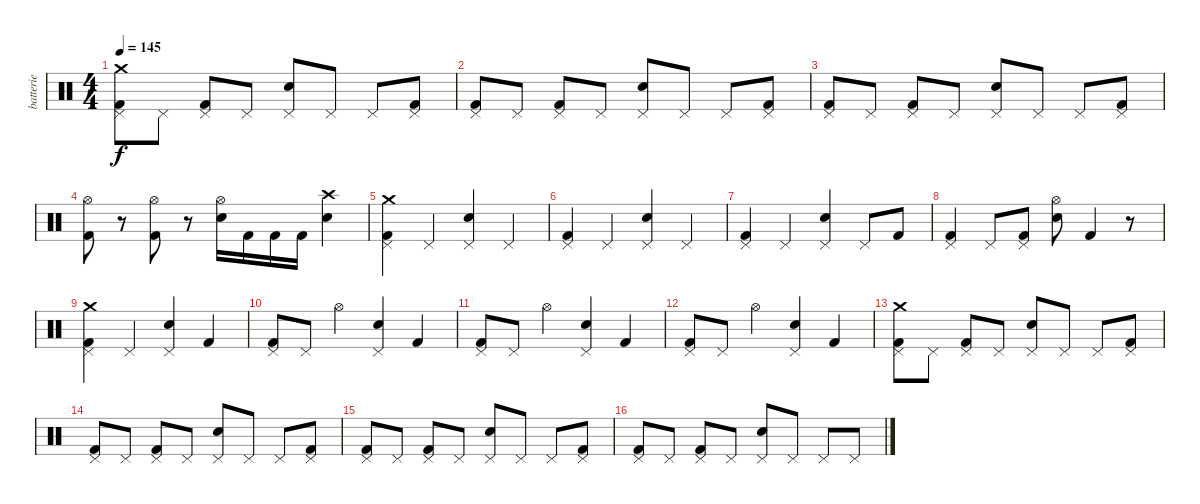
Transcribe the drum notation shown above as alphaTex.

\track ("batterie" "batterie") {instrument percussion}
\staff {score}
\articulation defaults
\ts (4 4)
\tempo 145
\clef neutral
\ks c
("Crash medium (hit)" "Pedal Hi-Hat (hit)" "Kick (hit) 2").8{dy f} "Pedal Hi-Hat (hit)".8 ("Pedal Hi-Hat (hit)" "Kick (hit) 2").8 "Pedal Hi-Hat (hit)".8 ("Pedal Hi-Hat (hit)" "Electric Snare (hit)").8 "Pedal Hi-Hat (hit)".8 "Pedal Hi-Hat (hit)".8 ("Pedal Hi-Hat (hit)" "Kick (hit) 2").8 |
("Pedal Hi-Hat (hit)" "Kick (hit) 2").8 "Pedal Hi-Hat (hit)".8 ("Pedal Hi-Hat (hit)" "Kick (hit) 2").8 "Pedal Hi-Hat (hit)".8 ("Pedal Hi-Hat (hit)" "Electric Snare (hit)").8 "Pedal Hi-Hat (hit)".8 "Pedal Hi-Hat (hit)".8 ("Pedal Hi-Hat (hit)" "Kick (hit) 2").8 |
("Pedal Hi-Hat (hit)" "Kick (hit) 2").8 "Pedal Hi-Hat (hit)".8 ("Pedal Hi-Hat (hit)" "Kick (hit) 2").8 "Pedal Hi-Hat (hit)".8 ("Pedal Hi-Hat (hit)" "Electric Snare (hit)").8 "Pedal Hi-Hat (hit)".8 "Pedal Hi-Hat (hit)".8 ("Pedal Hi-Hat (hit)" "Kick (hit) 2").8 |
("Hi-Hat (open)" "Kick (hit) 2").8 r.8 ("Hi-Hat (open)" "Kick (hit) 2").8 r.8 ("Hi-Hat (open)" "Electric Snare (hit)").16 "Kick (hit) 2".16 "Kick (hit) 2".16 "Kick (hit) 2".16 ("Crash high (hit)" "Electric Snare (hit)").4 |
("Crash medium (hit)" "Pedal Hi-Hat (hit)" "Kick (hit) 2").4 "Pedal Hi-Hat (hit)".4 ("Pedal Hi-Hat (hit)" "Electric Snare (hit)").4 "Pedal Hi-Hat (hit)".4 |
("Pedal Hi-Hat (hit)" "Kick (hit) 2").4 "Pedal Hi-Hat (hit)".4 ("Pedal Hi-Hat (hit)" "Electric Snare (hit)").4 "Pedal Hi-Hat (hit)".4 |
("Pedal Hi-Hat (hit)" "Kick (hit) 2").4 "Pedal Hi-Hat (hit)".4 ("Pedal Hi-Hat (hit)" "Electric Snare (hit)").4 "Pedal Hi-Hat (hit)".8 "Kick (hit) 2".8 |
("Pedal Hi-Hat (hit)" "Kick (hit) 2").4 "Pedal Hi-Hat (hit)".8 ("Pedal Hi-Hat (hit)" "Kick (hit) 2").8 ("Hi-Hat (open)" "Electric Snare (hit)").8 "Kick (hit) 2".4 r.8 |
("Crash medium (hit)" "Pedal Hi-Hat (hit)" "Kick (hit) 2").4 "Pedal Hi-Hat (hit)".4 ("Pedal Hi-Hat (hit)" "Electric Snare (hit)").4 "Kick (hit) 2".4 |
("Pedal Hi-Hat (hit)" "Kick (hit) 2").8 "Pedal Hi-Hat (hit)".8 "Hi-Hat (open)".4 ("Pedal Hi-Hat (hit)" "Electric Snare (hit)").4 "Kick (hit) 2".4 |
("Pedal Hi-Hat (hit)" "Kick (hit) 2").8 "Pedal Hi-Hat (hit)".8 "Hi-Hat (open)".4 ("Pedal Hi-Hat (hit)" "Electric Snare (hit)").4 "Kick (hit) 2".4 |
("Pedal Hi-Hat (hit)" "Kick (hit) 2").8 "Pedal Hi-Hat (hit)".8 "Hi-Hat (open)".4 ("Pedal Hi-Hat (hit)" "Electric Snare (hit)").4 "Kick (hit) 2".4 |
("Crash medium (hit)" "Pedal Hi-Hat (hit)" "Kick (hit) 2").8 "Pedal Hi-Hat (hit)".8 ("Pedal Hi-Hat (hit)" "Kick (hit) 2").8 "Pedal Hi-Hat (hit)".8 ("Pedal Hi-Hat (hit)" "Electric Snare (hit)").8 "Pedal Hi-Hat (hit)".8 "Pedal Hi-Hat (hit)".8 ("Pedal Hi-Hat (hit)" "Kick (hit) 2").8 |
("Pedal Hi-Hat (hit)" "Kick (hit) 2").8 "Pedal Hi-Hat (hit)".8 ("Pedal Hi-Hat (hit)" "Kick (hit) 2").8 "Pedal Hi-Hat (hit)".8 ("Pedal Hi-Hat (hit)" "Electric Snare (hit)").8 "Pedal Hi-Hat (hit)".8 "Pedal Hi-Hat (hit)".8 ("Pedal Hi-Hat (hit)" "Kick (hit) 2").8 |
("Pedal Hi-Hat (hit)" "Kick (hit) 2").8 "Pedal Hi-Hat (hit)".8 ("Pedal Hi-Hat (hit)" "Kick (hit) 2").8 "Pedal Hi-Hat (hit)".8 ("Pedal Hi-Hat (hit)" "Electric Snare (hit)").8 "Pedal Hi-Hat (hit)".8 "Pedal Hi-Hat (hit)".8 ("Pedal Hi-Hat (hit)" "Kick (hit) 2").8 |
("Pedal Hi-Hat (hit)" "Kick (hit) 2").8 "Pedal Hi-Hat (hit)".8 ("Pedal Hi-Hat (hit)" "Kick (hit) 2").8 "Pedal Hi-Hat (hit)".8 ("Pedal Hi-Hat (hit)" "Electric Snare (hit)").8 "Pedal Hi-Hat (hit)".8 "Pedal Hi-Hat (hit)".8 "Pedal Hi-Hat (hit)".8
